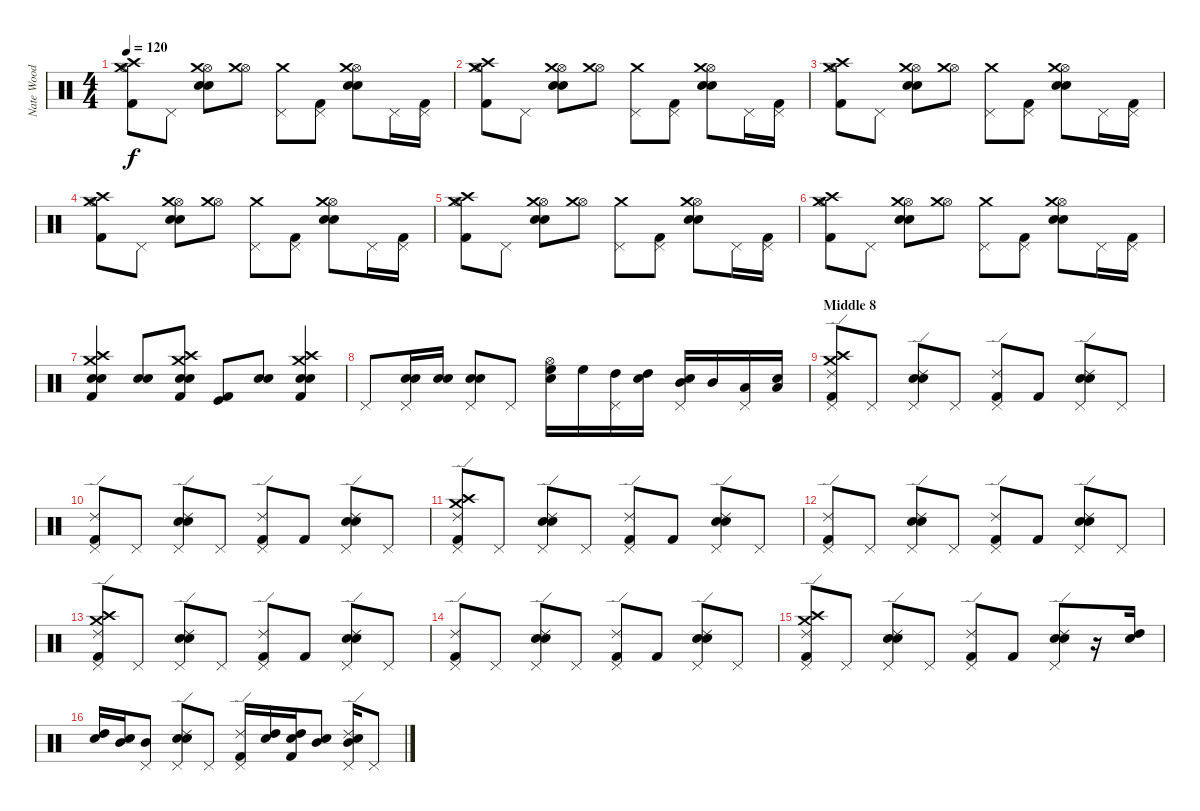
\track ("Nate Wood  (Drums)" "Nate Wood ") {instrument percussion}
\staff {score}
\articulation defaults
\ts (4 4)
\tempo 120
\clef neutral
\ks c
("Kick (hit) 2" "Hi-Hat (open)" "Crash medium (hit)" "Crash high (hit)").8{dy f} "Pedal Hi-Hat (hit)".8 ("Snare (hit) 2" "Electric Snare (hit)" "Hi-Hat (open)" "Crash medium (hit)").8 ("Hi-Hat (open)" "Crash medium (hit)").8 ("Pedal Hi-Hat (hit)" "Crash medium (hit)").8 ("Kick (hit) 2" "Pedal Hi-Hat (hit)").8 ("Snare (hit) 2" "Electric Snare (hit)" "Hi-Hat (open)" "Crash medium (hit)").8 "Pedal Hi-Hat (hit)".16 ("Kick (hit) 2" "Pedal Hi-Hat (hit)").16 |
("Kick (hit) 2" "Hi-Hat (open)" "Crash medium (hit)" "Crash high (hit)").8 "Pedal Hi-Hat (hit)".8 ("Snare (hit) 2" "Electric Snare (hit)" "Hi-Hat (open)" "Crash medium (hit)").8 ("Hi-Hat (open)" "Crash medium (hit)").8 ("Pedal Hi-Hat (hit)" "Crash medium (hit)").8 ("Kick (hit) 2" "Pedal Hi-Hat (hit)").8 ("Snare (hit) 2" "Electric Snare (hit)" "Hi-Hat (open)" "Crash medium (hit)").8 "Pedal Hi-Hat (hit)".16 ("Kick (hit) 2" "Pedal Hi-Hat (hit)").16 |
("Kick (hit) 2" "Hi-Hat (open)" "Crash medium (hit)" "Crash high (hit)").8 "Pedal Hi-Hat (hit)".8 ("Snare (hit) 2" "Electric Snare (hit)" "Hi-Hat (open)" "Crash medium (hit)").8 ("Hi-Hat (open)" "Crash medium (hit)").8 ("Pedal Hi-Hat (hit)" "Crash medium (hit)").8 ("Kick (hit) 2" "Pedal Hi-Hat (hit)").8 ("Snare (hit) 2" "Electric Snare (hit)" "Hi-Hat (open)" "Crash medium (hit)").8 "Pedal Hi-Hat (hit)".16 ("Kick (hit) 2" "Pedal Hi-Hat (hit)").16 |
("Kick (hit) 2" "Hi-Hat (open)" "Crash medium (hit)" "Crash high (hit)").8 "Pedal Hi-Hat (hit)".8 ("Snare (hit) 2" "Electric Snare (hit)" "Hi-Hat (open)" "Crash medium (hit)").8 ("Hi-Hat (open)" "Crash medium (hit)").8 ("Pedal Hi-Hat (hit)" "Crash medium (hit)").8 ("Kick (hit) 2" "Pedal Hi-Hat (hit)").8 ("Snare (hit) 2" "Electric Snare (hit)" "Hi-Hat (open)" "Crash medium (hit)").8 "Pedal Hi-Hat (hit)".16 ("Kick (hit) 2" "Pedal Hi-Hat (hit)").16 |
("Kick (hit) 2" "Hi-Hat (open)" "Crash medium (hit)" "Crash high (hit)").8 "Pedal Hi-Hat (hit)".8 ("Snare (hit) 2" "Electric Snare (hit)" "Hi-Hat (open)" "Crash medium (hit)").8 ("Hi-Hat (open)" "Crash medium (hit)").8 ("Pedal Hi-Hat (hit)" "Crash medium (hit)").8 ("Kick (hit) 2" "Pedal Hi-Hat (hit)").8 ("Snare (hit) 2" "Electric Snare (hit)" "Hi-Hat (open)" "Crash medium (hit)").8 "Pedal Hi-Hat (hit)".16 ("Kick (hit) 2" "Pedal Hi-Hat (hit)").16 |
("Kick (hit) 2" "Hi-Hat (open)" "Crash medium (hit)" "Crash high (hit)").8 "Pedal Hi-Hat (hit)".8 ("Snare (hit) 2" "Electric Snare (hit)" "Hi-Hat (open)" "Crash medium (hit)").8 ("Hi-Hat (open)" "Crash medium (hit)").8 ("Pedal Hi-Hat (hit)" "Crash medium (hit)").8 ("Kick (hit) 2" "Pedal Hi-Hat (hit)").8 ("Snare (hit) 2" "Electric Snare (hit)" "Hi-Hat (open)" "Crash medium (hit)").8 "Pedal Hi-Hat (hit)".16 ("Kick (hit) 2" "Pedal Hi-Hat (hit)").16 |
("Kick (hit) 2" "Electric Snare (hit)" "Crash medium (hit)" "Crash high (hit)" "Snare (hit) 2").4 ("Snare (hit) 2" "Electric Snare (hit)").8 ("Kick (hit) 2" "Electric Snare (hit)" "Crash medium (hit)" "Crash high (hit)" "Snare (hit) 2").8 ("Kick (hit) 2" "Kick (hit)").8 ("Snare (hit) 2" "Electric Snare (hit)").8 ("Kick (hit) 2" "Electric Snare (hit)" "Crash medium (hit)" "Crash high (hit)" "Snare (hit) 2").4 |
"Pedal Hi-Hat (hit)".8 ("Pedal Hi-Hat (hit)" "Snare (hit) 2" "Electric Snare (hit)").16 ("Snare (hit) 2" "Electric Snare (hit)").16 ("Pedal Hi-Hat (hit)" "Snare (hit) 2" "Electric Snare (hit)").8 "Pedal Hi-Hat (hit)".8 ("Hi-Hat (open)" "Snare (hit) 2" "High Floor Tom (hit)").16 "High Floor Tom (hit)".16 ("Pedal Hi-Hat (hit)" "High Tom (hit)").16 ("Snare (hit) 2" "High Tom (hit)").16 ("Pedal Hi-Hat (hit)" "Snare (hit) 2" "Mid Tom (hit)").16 "Mid Tom (hit)".16 ("Pedal Hi-Hat (hit)" "Low Tom (hit)").16 ("Snare (hit) 2" "Low Tom (hit)").16 |
\section ("" "Middle 8")
("Pedal Hi-Hat (hit)" "Crash medium (hit)" "Kick (hit) 2" "Ride (edge) 2" "Crash high (hit)").8 "Pedal Hi-Hat (hit)".8 ("Pedal Hi-Hat (hit)" "Snare (hit) 2" "Electric Snare (hit)" "Ride (edge) 2").8 "Pedal Hi-Hat (hit)".8 ("Pedal Hi-Hat (hit)" "Kick (hit) 2" "Ride (edge) 2").8 "Kick (hit) 2".8 ("Pedal Hi-Hat (hit)" "Snare (hit) 2" "Electric Snare (hit)" "Ride (edge) 2").8 "Pedal Hi-Hat (hit)".8 |
("Pedal Hi-Hat (hit)" "Kick (hit) 2" "Ride (edge) 2").8 "Pedal Hi-Hat (hit)".8 ("Pedal Hi-Hat (hit)" "Snare (hit) 2" "Electric Snare (hit)" "Ride (edge) 2").8 "Pedal Hi-Hat (hit)".8 ("Pedal Hi-Hat (hit)" "Kick (hit) 2" "Ride (edge) 2").8 "Kick (hit) 2".8 ("Pedal Hi-Hat (hit)" "Snare (hit) 2" "Electric Snare (hit)" "Ride (edge) 2").8 "Pedal Hi-Hat (hit)".8 |
("Pedal Hi-Hat (hit)" "Crash medium (hit)" "Kick (hit) 2" "Ride (edge) 2" "Crash high (hit)").8 "Pedal Hi-Hat (hit)".8 ("Pedal Hi-Hat (hit)" "Snare (hit) 2" "Electric Snare (hit)" "Ride (edge) 2").8 "Pedal Hi-Hat (hit)".8 ("Pedal Hi-Hat (hit)" "Kick (hit) 2" "Ride (edge) 2").8 "Kick (hit) 2".8 ("Pedal Hi-Hat (hit)" "Snare (hit) 2" "Electric Snare (hit)" "Ride (edge) 2").8 "Pedal Hi-Hat (hit)".8 |
("Pedal Hi-Hat (hit)" "Kick (hit) 2" "Ride (edge) 2").8 "Pedal Hi-Hat (hit)".8 ("Pedal Hi-Hat (hit)" "Snare (hit) 2" "Electric Snare (hit)" "Ride (edge) 2").8 "Pedal Hi-Hat (hit)".8 ("Pedal Hi-Hat (hit)" "Kick (hit) 2" "Ride (edge) 2").8 "Kick (hit) 2".8 ("Pedal Hi-Hat (hit)" "Snare (hit) 2" "Electric Snare (hit)" "Ride (edge) 2").8 "Pedal Hi-Hat (hit)".8 |
("Pedal Hi-Hat (hit)" "Crash medium (hit)" "Kick (hit) 2" "Ride (edge) 2" "Crash high (hit)").8 "Pedal Hi-Hat (hit)".8 ("Pedal Hi-Hat (hit)" "Snare (hit) 2" "Electric Snare (hit)" "Ride (edge) 2").8 "Pedal Hi-Hat (hit)".8 ("Pedal Hi-Hat (hit)" "Kick (hit) 2" "Ride (edge) 2").8 "Kick (hit) 2".8 ("Pedal Hi-Hat (hit)" "Snare (hit) 2" "Electric Snare (hit)" "Ride (edge) 2").8 "Pedal Hi-Hat (hit)".8 |
("Pedal Hi-Hat (hit)" "Kick (hit) 2" "Ride (edge) 2").8 "Pedal Hi-Hat (hit)".8 ("Pedal Hi-Hat (hit)" "Snare (hit) 2" "Electric Snare (hit)" "Ride (edge) 2").8 "Pedal Hi-Hat (hit)".8 ("Pedal Hi-Hat (hit)" "Kick (hit) 2" "Ride (edge) 2").8 "Kick (hit) 2".8 ("Pedal Hi-Hat (hit)" "Snare (hit) 2" "Electric Snare (hit)" "Ride (edge) 2").8 "Pedal Hi-Hat (hit)".8 |
("Pedal Hi-Hat (hit)" "Crash medium (hit)" "Kick (hit) 2" "Ride (edge) 2" "Crash high (hit)").8 "Pedal Hi-Hat (hit)".8 ("Pedal Hi-Hat (hit)" "Snare (hit) 2" "Electric Snare (hit)" "Ride (edge) 2").8 "Pedal Hi-Hat (hit)".8 ("Pedal Hi-Hat (hit)" "Kick (hit) 2" "Ride (edge) 2").8 "Kick (hit) 2".8 ("Pedal Hi-Hat (hit)" "Snare (hit) 2" "Electric Snare (hit)" "Ride (edge) 2").8 r.16 ("Snare (hit) 2" "High Tom (hit)").16 |
("Snare (hit) 2" "High Tom (hit)").16 ("Snare (hit) 2" "Mid Tom (hit)").16 ("Pedal Hi-Hat (hit)" "Mid Tom (hit)").8 ("Pedal Hi-Hat (hit)" "Snare (hit) 2" "Electric Snare (hit)" "Ride (edge) 2").8 "Pedal Hi-Hat (hit)".8 ("Pedal Hi-Hat (hit)" "Kick (hit) 2" "Ride (edge) 2").16 ("High Tom (hit)" "Snare (hit) 2").16 ("High Tom (hit)" "Snare (hit) 2" "Kick (hit) 2").16 ("Mid Tom (hit)" "Snare (hit) 2").8 ("Pedal Hi-Hat (hit)" "Mid Tom (hit)" "Electric Snare (hit)" "Ride (edge) 2").16 "Pedal Hi-Hat (hit)".8
